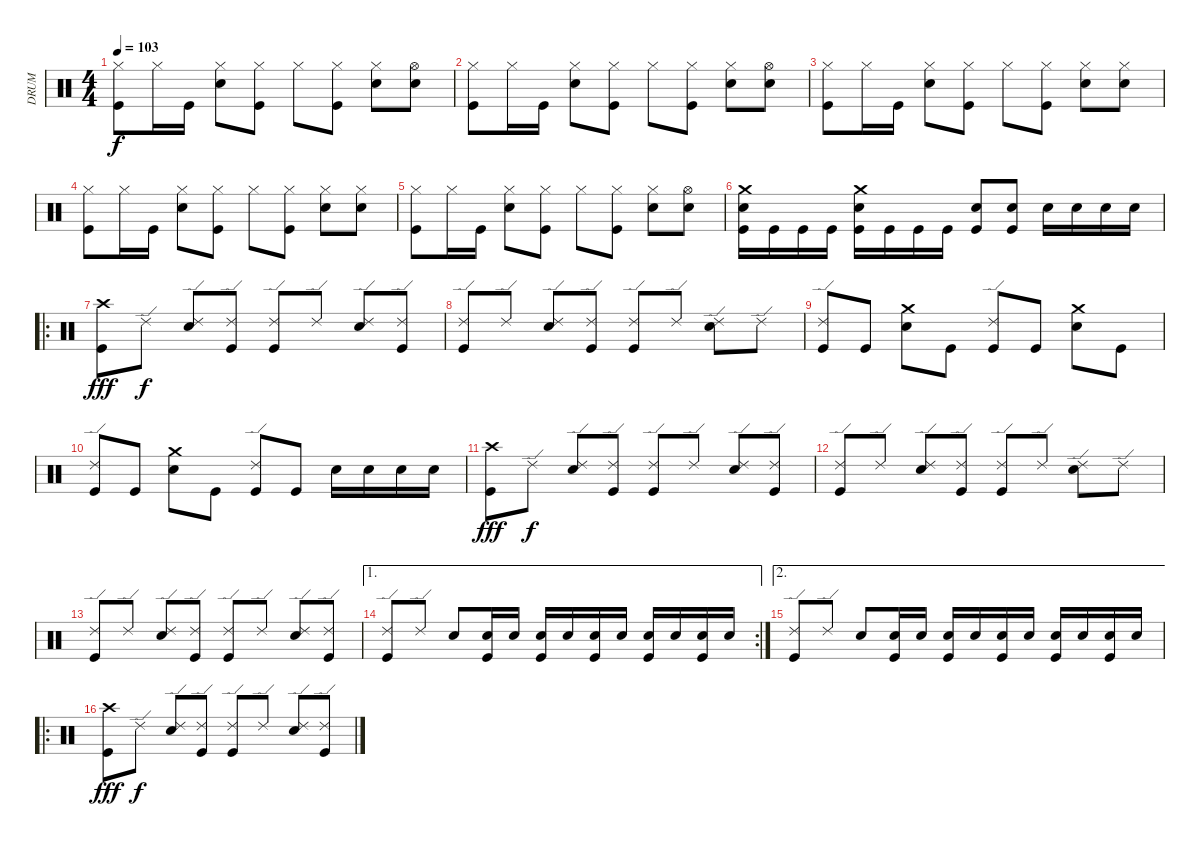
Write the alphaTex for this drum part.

\track ("DRUM" "DRUM") {instrument percussion}
\staff {score}
\articulation defaults
\ts (4 4)
\tempo 103
\clef neutral
\ks c
("Hi-Hat (closed)" "Kick (hit)").8{dy f} "Hi-Hat (closed)".16 "Kick (hit)".16 ("Snare (hit) 2" "Hi-Hat (closed)").8 ("Hi-Hat (closed)" "Kick (hit)").8 "Hi-Hat (closed)".8 ("Hi-Hat (closed)" "Kick (hit)").8 ("Snare (hit) 2" "Hi-Hat (closed)").8 ("Snare (hit) 2" "Hi-Hat (open)").8 |
("Hi-Hat (closed)" "Kick (hit)").8 "Hi-Hat (closed)".16 "Kick (hit)".16 ("Snare (hit) 2" "Hi-Hat (closed)").8 ("Hi-Hat (closed)" "Kick (hit)").8 "Hi-Hat (closed)".8 ("Hi-Hat (closed)" "Kick (hit)").8 ("Snare (hit) 2" "Hi-Hat (closed)").8 ("Snare (hit) 2" "Hi-Hat (open)").8 |
("Hi-Hat (closed)" "Kick (hit)").8 "Hi-Hat (closed)".16 "Kick (hit)".16 ("Snare (hit) 2" "Hi-Hat (closed)").8 ("Hi-Hat (closed)" "Kick (hit)").8 "Hi-Hat (closed)".8 ("Hi-Hat (closed)" "Kick (hit)").8 ("Snare (hit) 2" "Hi-Hat (closed)").8 ("Snare (hit) 2" "Hi-Hat (closed)").8 |
("Hi-Hat (closed)" "Kick (hit)").8 "Hi-Hat (closed)".16 "Kick (hit)".16 ("Snare (hit) 2" "Hi-Hat (closed)").8 ("Hi-Hat (closed)" "Kick (hit)").8 "Hi-Hat (closed)".8 ("Hi-Hat (closed)" "Kick (hit)").8 ("Snare (hit) 2" "Hi-Hat (closed)").8 ("Snare (hit) 2" "Hi-Hat (closed)").8 |
("Hi-Hat (closed)" "Kick (hit)").8 "Hi-Hat (closed)".16 "Kick (hit)".16 ("Snare (hit) 2" "Hi-Hat (closed)").8 ("Hi-Hat (closed)" "Kick (hit)").8 "Hi-Hat (closed)".8 ("Hi-Hat (closed)" "Kick (hit)").8 ("Snare (hit) 2" "Hi-Hat (closed)").8 ("Snare (hit) 2" "Hi-Hat (open)").8 |
("Crash medium (hit)" "Snare (hit) 2" "Kick (hit)").16 "Kick (hit)".16 "Kick (hit)".16 "Kick (hit)".16 ("Crash medium (hit)" "Snare (hit) 2" "Kick (hit)").16 "Kick (hit)".16 "Kick (hit)".16 "Kick (hit)".16 ("Snare (hit) 2" "Kick (hit)").8 ("Snare (hit) 2" "Kick (hit)").8 "Snare (hit) 2".16 "Snare (hit) 2".16 "Snare (hit) 2".16 "Snare (hit) 2".16 |
\ro
("Crash high (hit)" "Kick (hit)").8{dy fff} "Ride (edge) 2".8{dy f} ("Ride (edge) 2" "Snare (hit) 2").8 ("Ride (edge) 2" "Kick (hit)").8 ("Ride (edge) 2" "Kick (hit)").8 "Ride (edge) 2".8 ("Ride (edge) 2" "Snare (hit) 2").8 ("Ride (edge) 2" "Kick (hit)").8 |
("Ride (edge) 2" "Kick (hit)").8 "Ride (edge) 2".8 ("Ride (edge) 2" "Snare (hit) 2").8 ("Ride (edge) 2" "Kick (hit)").8 ("Ride (edge) 2" "Kick (hit)").8 "Ride (edge) 2".8 ("Ride (edge) 2" "Snare (hit) 2").8 "Ride (edge) 2".8 |
("Ride (edge) 2" "Kick (hit)").8 "Kick (hit)".8 ("Crash medium (hit)" "Snare (hit) 2").8 "Kick (hit)".8 ("Ride (edge) 2" "Kick (hit)").8 "Kick (hit)".8 ("Crash medium (hit)" "Snare (hit) 2").8 "Kick (hit)".8 |
("Ride (edge) 2" "Kick (hit)").8 "Kick (hit)".8 ("Crash medium (hit)" "Snare (hit) 2").8 "Kick (hit)".8 ("Ride (edge) 2" "Kick (hit)").8 "Kick (hit)".8 "Snare (hit) 2".16 "Snare (hit) 2".16 "Snare (hit) 2".16 "Snare (hit) 2".16 |
("Crash high (hit)" "Kick (hit)").8{dy fff} "Ride (edge) 2".8{dy f} ("Ride (edge) 2" "Snare (hit) 2").8 ("Ride (edge) 2" "Kick (hit)").8 ("Ride (edge) 2" "Kick (hit)").8 "Ride (edge) 2".8 ("Ride (edge) 2" "Snare (hit) 2").8 ("Ride (edge) 2" "Kick (hit)").8 |
("Ride (edge) 2" "Kick (hit)").8 "Ride (edge) 2".8 ("Ride (edge) 2" "Snare (hit) 2").8 ("Ride (edge) 2" "Kick (hit)").8 ("Ride (edge) 2" "Kick (hit)").8 "Ride (edge) 2".8 ("Ride (edge) 2" "Snare (hit) 2").8 "Ride (edge) 2".8 |
("Ride (edge) 2" "Kick (hit)").8 "Ride (edge) 2".8 ("Ride (edge) 2" "Snare (hit) 2").8 ("Ride (edge) 2" "Kick (hit)").8 ("Ride (edge) 2" "Kick (hit)").8 "Ride (edge) 2".8 ("Ride (edge) 2" "Snare (hit) 2").8 ("Ride (edge) 2" "Kick (hit)").8 |
\ae 1
\rc 2
("Ride (edge) 2" "Kick (hit)").8 "Ride (edge) 2".8 "Snare (hit) 2".8 ("Snare (hit) 2" "Kick (hit)").16 "Snare (hit) 2".16 ("Snare (hit) 2" "Kick (hit)").16 "Snare (hit) 2".16 ("Snare (hit) 2" "Kick (hit)").16 "Snare (hit) 2".16 ("Snare (hit) 2" "Kick (hit)").16 "Snare (hit) 2".16 ("Snare (hit) 2" "Kick (hit)").16 "Snare (hit) 2".16 |
\ae 2
("Ride (edge) 2" "Kick (hit)").8 "Ride (edge) 2".8 "Snare (hit) 2".8 ("Snare (hit) 2" "Kick (hit)").16 "Snare (hit) 2".16 ("Snare (hit) 2" "Kick (hit)").16 "Snare (hit) 2".16 ("Snare (hit) 2" "Kick (hit)").16 "Snare (hit) 2".16 ("Snare (hit) 2" "Kick (hit)").16 "Snare (hit) 2".16 ("Snare (hit) 2" "Kick (hit)").16 "Snare (hit) 2".16 |
\ro
("Crash high (hit)" "Kick (hit)").8{dy fff} "Ride (edge) 2".8{dy f} ("Ride (edge) 2" "Snare (hit) 2").8 ("Ride (edge) 2" "Kick (hit)").8 ("Ride (edge) 2" "Kick (hit)").8 "Ride (edge) 2".8 ("Ride (edge) 2" "Snare (hit) 2").8 ("Ride (edge) 2" "Kick (hit)").8
